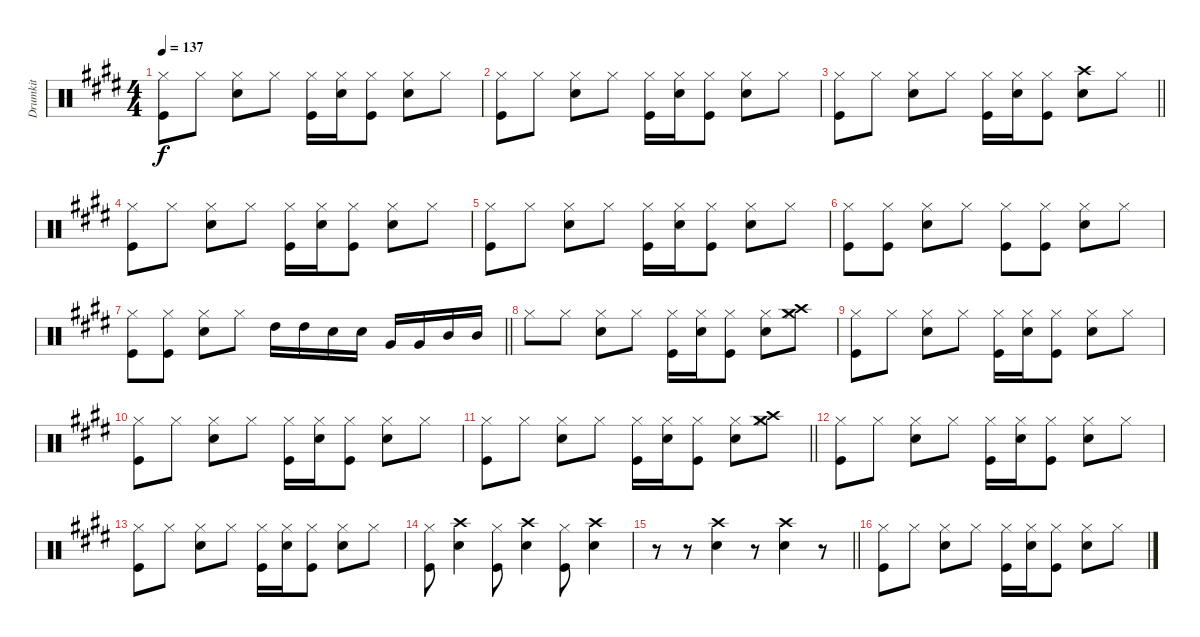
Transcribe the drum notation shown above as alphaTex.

\track ("Drumkit" "Drumkit") {instrument percussion}
\staff {score}
\articulation defaults
\ts (4 4)
\tempo 137
\clef neutral
\ks e
("Hi-Hat (closed)" "Kick (hit)").8{dy f} "Hi-Hat (closed)".8 ("Hi-Hat (closed)" "Snare (hit) 2").8 "Hi-Hat (closed)".8 ("Hi-Hat (closed)" "Kick (hit)").16 ("Hi-Hat (closed)" "Snare (hit) 2").16 ("Hi-Hat (closed)" "Kick (hit)").8 ("Hi-Hat (closed)" "Snare (hit) 2").8 "Hi-Hat (closed)".8 |
("Hi-Hat (closed)" "Kick (hit)").8 "Hi-Hat (closed)".8 ("Hi-Hat (closed)" "Snare (hit) 2").8 "Hi-Hat (closed)".8 ("Hi-Hat (closed)" "Kick (hit)").16 ("Hi-Hat (closed)" "Snare (hit) 2").16 ("Hi-Hat (closed)" "Kick (hit)").8 ("Hi-Hat (closed)" "Snare (hit) 2").8 "Hi-Hat (closed)".8 |
\barLineRight lightlight
("Hi-Hat (closed)" "Kick (hit)").8 "Hi-Hat (closed)".8 ("Hi-Hat (closed)" "Snare (hit) 2").8 "Hi-Hat (closed)".8 ("Hi-Hat (closed)" "Kick (hit)").16 ("Hi-Hat (closed)" "Snare (hit) 2").16 ("Hi-Hat (closed)" "Kick (hit)").8 ("Snare (hit) 2" "Crash high (hit)").8 "Hi-Hat (closed)".8 |
("Hi-Hat (closed)" "Kick (hit)").8 "Hi-Hat (closed)".8 ("Hi-Hat (closed)" "Snare (hit) 2").8 "Hi-Hat (closed)".8 ("Hi-Hat (closed)" "Kick (hit)").16 ("Hi-Hat (closed)" "Snare (hit) 2").16 ("Hi-Hat (closed)" "Kick (hit)").8 ("Hi-Hat (closed)" "Snare (hit) 2").8 "Hi-Hat (closed)".8 |
("Hi-Hat (closed)" "Kick (hit)").8 "Hi-Hat (closed)".8 ("Hi-Hat (closed)" "Snare (hit) 2").8 "Hi-Hat (closed)".8 ("Hi-Hat (closed)" "Kick (hit)").16 ("Hi-Hat (closed)" "Snare (hit) 2").16 ("Hi-Hat (closed)" "Kick (hit)").8 ("Hi-Hat (closed)" "Snare (hit) 2").8 "Hi-Hat (closed)".8 |
("Hi-Hat (closed)" "Kick (hit)").8 ("Hi-Hat (closed)" "Kick (hit)").8 ("Hi-Hat (closed)" "Snare (hit) 2").8 "Hi-Hat (closed)".8 ("Hi-Hat (closed)" "Kick (hit)").8 ("Hi-Hat (closed)" "Kick (hit)").8 ("Hi-Hat (closed)" "Snare (hit) 2").8 "Hi-Hat (closed)".8 |
\barLineRight lightlight
("Hi-Hat (closed)" "Kick (hit)").8 ("Hi-Hat (closed)" "Kick (hit)").8 ("Hi-Hat (closed)" "Snare (hit) 2").8 "Hi-Hat (closed)".8 "High Tom (hit)".16 "High Tom (hit)".16 "Snare (hit) 2".16 "Snare (hit) 2".16 "Very Low Tom (hit)".16 "Very Low Tom (hit)".16 "Mid Tom (hit)".16 "Mid Tom (hit)".16 |
"Hi-Hat (closed)".8 "Hi-Hat (closed)".8 ("Hi-Hat (closed)" "Snare (hit) 2").8 "Hi-Hat (closed)".8 ("Hi-Hat (closed)" "Kick (hit)").16 ("Hi-Hat (closed)" "Snare (hit) 2").16 ("Hi-Hat (closed)" "Kick (hit)").8 ("Hi-Hat (closed)" "Snare (hit) 2").8 ("Hi-Hat (closed)" "Crash high (hit)" "Crash medium (hit)").8 |
("Hi-Hat (closed)" "Kick (hit)").8 "Hi-Hat (closed)".8 ("Hi-Hat (closed)" "Snare (hit) 2").8 "Hi-Hat (closed)".8 ("Hi-Hat (closed)" "Kick (hit)").16 ("Hi-Hat (closed)" "Snare (hit) 2").16 ("Hi-Hat (closed)" "Kick (hit)").8 ("Hi-Hat (closed)" "Snare (hit) 2").8 "Hi-Hat (closed)".8 |
("Hi-Hat (closed)" "Kick (hit)").8 "Hi-Hat (closed)".8 ("Hi-Hat (closed)" "Snare (hit) 2").8 "Hi-Hat (closed)".8 ("Hi-Hat (closed)" "Kick (hit)").16 ("Hi-Hat (closed)" "Snare (hit) 2").16 ("Hi-Hat (closed)" "Kick (hit)").8 ("Hi-Hat (closed)" "Snare (hit) 2").8 "Hi-Hat (closed)".8 |
\barLineRight lightlight
("Hi-Hat (closed)" "Kick (hit)").8 "Hi-Hat (closed)".8 ("Hi-Hat (closed)" "Snare (hit) 2").8 "Hi-Hat (closed)".8 ("Hi-Hat (closed)" "Kick (hit)").16 ("Hi-Hat (closed)" "Snare (hit) 2").16 ("Hi-Hat (closed)" "Kick (hit)").8 ("Hi-Hat (closed)" "Snare (hit) 2").8 ("Hi-Hat (closed)" "Crash high (hit)" "Crash medium (hit)").8 |
("Hi-Hat (closed)" "Kick (hit)").8 "Hi-Hat (closed)".8 ("Hi-Hat (closed)" "Snare (hit) 2").8 "Hi-Hat (closed)".8 ("Hi-Hat (closed)" "Kick (hit)").16 ("Hi-Hat (closed)" "Snare (hit) 2").16 ("Hi-Hat (closed)" "Kick (hit)").8 ("Hi-Hat (closed)" "Snare (hit) 2").8 "Hi-Hat (closed)".8 |
("Hi-Hat (closed)" "Kick (hit)").8 "Hi-Hat (closed)".8 ("Hi-Hat (closed)" "Snare (hit) 2").8 "Hi-Hat (closed)".8 ("Hi-Hat (closed)" "Kick (hit)").16 ("Hi-Hat (closed)" "Snare (hit) 2").16 ("Hi-Hat (closed)" "Kick (hit)").8 ("Hi-Hat (closed)" "Snare (hit) 2").8 "Hi-Hat (closed)".8 |
("Hi-Hat (closed)" "Kick (hit)").8 ("Crash high (hit)" "Snare (hit) 2").4 ("Hi-Hat (closed)" "Kick (hit)").8 ("Crash high (hit)" "Snare (hit) 2").4 ("Hi-Hat (closed)" "Kick (hit)").8 ("Crash high (hit)" "Snare (hit) 2").4 |
\barLineRight lightlight
r.8 r.8 ("Crash high (hit)" "Snare (hit) 2").4 r.8 ("Crash high (hit)" "Snare (hit) 2").4 r.8 |
("Hi-Hat (closed)" "Kick (hit)").8 "Hi-Hat (closed)".8 ("Hi-Hat (closed)" "Snare (hit) 2").8 "Hi-Hat (closed)".8 ("Hi-Hat (closed)" "Kick (hit)").16 ("Hi-Hat (closed)" "Snare (hit) 2").16 ("Hi-Hat (closed)" "Kick (hit)").8 ("Hi-Hat (closed)" "Snare (hit) 2").8 "Hi-Hat (closed)".8
